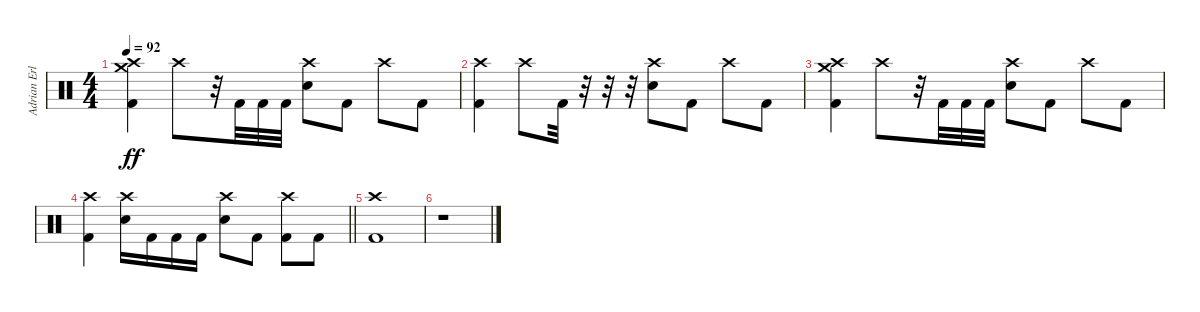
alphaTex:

\track ("Adrian Erlandsson (drums)" "Adrian Erl") {instrument percussion}
\staff {score}
\articulation defaults
\ts (4 4)
\tempo 92
\clef neutral
\ks c
("Crash high (hit)" "Crash medium (hit)" "Kick (hit) 2").4{dy ff} "Crash high (hit)".8 r.32 "Kick (hit) 2".32 "Kick (hit) 2".32 "Kick (hit) 2".32 ("Crash high (hit)" "Electric Snare (hit)").8 "Kick (hit) 2".8 "Crash high (hit)".8 "Kick (hit) 2".8 |
("Crash high (hit)" "Kick (hit) 2").4 "Crash high (hit)".8 "Kick (hit) 2".32 r.32 r.32 r.32 ("Crash high (hit)" "Electric Snare (hit)").8 "Kick (hit) 2".8 "Crash high (hit)".8 "Kick (hit) 2".8 |
("Crash high (hit)" "Crash medium (hit)" "Kick (hit) 2").4 "Crash high (hit)".8 r.32 "Kick (hit) 2".32 "Kick (hit) 2".32 "Kick (hit) 2".32 ("Crash high (hit)" "Electric Snare (hit)").8 "Kick (hit) 2".8 "Crash high (hit)".8 "Kick (hit) 2".8 |
\barLineRight lightlight
("Crash high (hit)" "Kick (hit) 2").4 ("Crash high (hit)" "Electric Snare (hit)").16 "Kick (hit) 2".16 "Kick (hit) 2".16 "Kick (hit) 2".16 ("Crash high (hit)" "Electric Snare (hit)").8 "Kick (hit) 2".8 ("Crash high (hit)" "Kick (hit) 2").8 "Kick (hit) 2".8 |
("Crash high (hit)" "Kick (hit) 2").1 |
r.1
